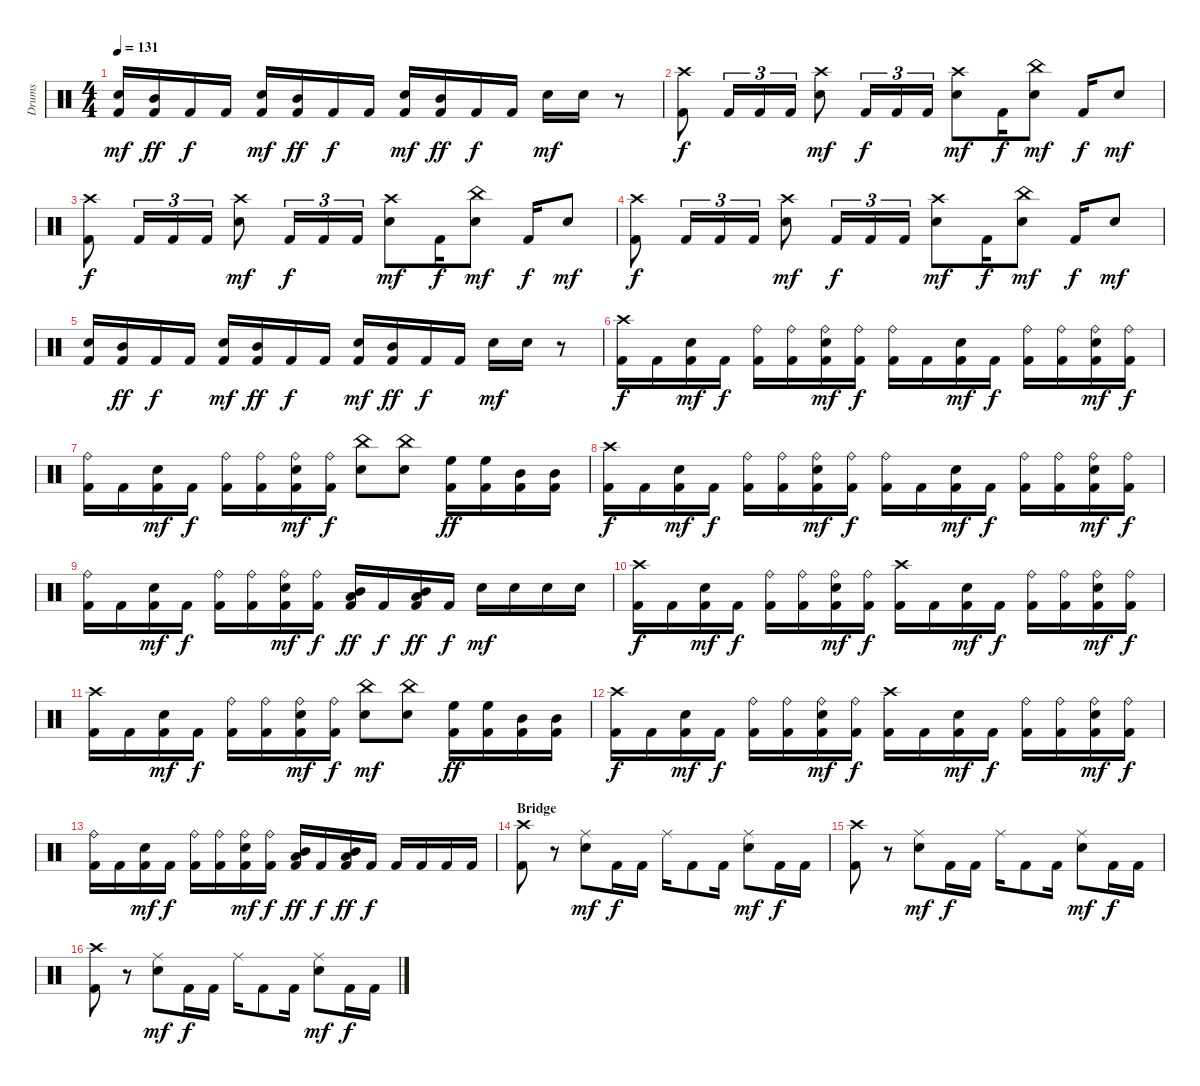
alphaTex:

\track ("Drums" "Drums") {instrument percussion}
\staff {score}
\articulation defaults
\ts (4 4)
\tempo 131
\clef neutral
\ks c
("Snare (hit) 2" "Kick (hit) 2").16{dy mf} ("Mid Tom (hit)" "Kick (hit) 2").16{dy ff} "Kick (hit) 2".16{dy f} "Kick (hit) 2".16 ("Snare (hit) 2" "Kick (hit) 2").16{dy mf} ("Mid Tom (hit)" "Kick (hit) 2").16{dy ff} "Kick (hit) 2".16{dy f} "Kick (hit) 2".16 ("Snare (hit) 2" "Kick (hit) 2").16{dy mf} ("Mid Tom (hit)" "Kick (hit) 2").16{dy ff} "Kick (hit) 2".16{dy f} "Kick (hit) 2".16 "Snare (hit) 2".16{dy mf} "Snare (hit) 2".16 r.8 |
("Crash high (hit)" "Kick (hit) 2").8{dy f} "Kick (hit) 2".16{tu (3 2)} "Kick (hit) 2".16{tu (3 2)} "Kick (hit) 2".16{tu (3 2)} ("Crash high (hit)" "Snare (hit) 2").8{dy mf} "Kick (hit) 2".16{tu (3 2) dy f} "Kick (hit) 2".16{tu (3 2)} "Kick (hit) 2".16{tu (3 2)} ("Crash high (hit)" "Snare (hit) 2").8{dy mf} "Kick (hit) 2".16{dy f} ("China (hit)" "Snare (hit) 2").8{dy mf} "Kick (hit) 2".16{dy f} "Snare (hit) 2".8{dy mf} |
("Crash high (hit)" "Kick (hit) 2").8{dy f} "Kick (hit) 2".16{tu (3 2)} "Kick (hit) 2".16{tu (3 2)} "Kick (hit) 2".16{tu (3 2)} ("Crash high (hit)" "Snare (hit) 2").8{dy mf} "Kick (hit) 2".16{tu (3 2) dy f} "Kick (hit) 2".16{tu (3 2)} "Kick (hit) 2".16{tu (3 2)} ("Crash high (hit)" "Snare (hit) 2").8{dy mf} "Kick (hit) 2".16{dy f} ("China (hit)" "Snare (hit) 2").8{dy mf} "Kick (hit) 2".16{dy f} "Snare (hit) 2".8{dy mf} |
("Crash high (hit)" "Kick (hit) 2").8{dy f} "Kick (hit) 2".16{tu (3 2)} "Kick (hit) 2".16{tu (3 2)} "Kick (hit) 2".16{tu (3 2)} ("Crash high (hit)" "Snare (hit) 2").8{dy mf} "Kick (hit) 2".16{tu (3 2) dy f} "Kick (hit) 2".16{tu (3 2)} "Kick (hit) 2".16{tu (3 2)} ("Crash high (hit)" "Snare (hit) 2").8{dy mf} "Kick (hit) 2".16{dy f} ("China (hit)" "Snare (hit) 2").8{dy mf} "Kick (hit) 2".16{dy f} "Snare (hit) 2".8{dy mf} |
("Snare (hit) 2" "Kick (hit) 2").16 ("Mid Tom (hit)" "Kick (hit) 2").16{dy ff} "Kick (hit) 2".16{dy f} "Kick (hit) 2".16 ("Snare (hit) 2" "Kick (hit) 2").16{dy mf} ("Mid Tom (hit)" "Kick (hit) 2").16{dy ff} "Kick (hit) 2".16{dy f} "Kick (hit) 2".16 ("Snare (hit) 2" "Kick (hit) 2").16{dy mf} ("Mid Tom (hit)" "Kick (hit) 2").16{dy ff} "Kick (hit) 2".16{dy f} "Kick (hit) 2".16 "Snare (hit) 2".16{dy mf} "Snare (hit) 2".16 r.8 |
\section ("" "")
("Crash high (hit)" "Kick (hit) 2").16{dy f} "Kick (hit) 2".16 ("Snare (hit) 2" "Kick (hit) 2").16{dy mf} "Kick (hit) 2".16{dy f} ("Ride (bell)" "Kick (hit) 2").16 ("Ride (bell)" "Kick (hit) 2").16 ("Ride (bell)" "Snare (hit) 2" "Kick (hit) 2").16{dy mf} ("Ride (bell)" "Kick (hit) 2").16{dy f} ("Ride (bell)" "Kick (hit) 2").16 "Kick (hit) 2".16 ("Snare (hit) 2" "Kick (hit) 2").16{dy mf} "Kick (hit) 2".16{dy f} ("Ride (bell)" "Kick (hit) 2").16 ("Ride (bell)" "Kick (hit) 2").16 ("Ride (bell)" "Snare (hit) 2" "Kick (hit) 2").16{dy mf} ("Ride (bell)" "Kick (hit) 2").16{dy f} |
("Ride (bell)" "Kick (hit) 2").16 "Kick (hit) 2".16 ("Snare (hit) 2" "Kick (hit) 2").16{dy mf} "Kick (hit) 2".16{dy f} ("Ride (bell)" "Kick (hit) 2").16 ("Ride (bell)" "Kick (hit) 2").16 ("Ride (bell)" "Snare (hit) 2" "Kick (hit) 2").16{dy mf} ("Ride (bell)" "Kick (hit) 2").16{dy f} ("China (hit)" "Snare (hit) 2").8 ("China (hit)" "Snare (hit) 2").8 ("High Floor Tom (hit)" "Kick (hit) 2").16{dy ff} ("High Floor Tom (hit)" "Kick (hit) 2").16 ("Mid Tom (hit)" "Kick (hit) 2").16 ("Mid Tom (hit)" "Kick (hit) 2").16 |
("Crash high (hit)" "Kick (hit) 2").16{dy f} "Kick (hit) 2".16 ("Snare (hit) 2" "Kick (hit) 2").16{dy mf} "Kick (hit) 2".16{dy f} ("Ride (bell)" "Kick (hit) 2").16 ("Ride (bell)" "Kick (hit) 2").16 ("Ride (bell)" "Snare (hit) 2" "Kick (hit) 2").16{dy mf} ("Ride (bell)" "Kick (hit) 2").16{dy f} ("Ride (bell)" "Kick (hit) 2").16 "Kick (hit) 2".16 ("Snare (hit) 2" "Kick (hit) 2").16{dy mf} "Kick (hit) 2".16{dy f} ("Ride (bell)" "Kick (hit) 2").16 ("Ride (bell)" "Kick (hit) 2").16 ("Ride (bell)" "Snare (hit) 2" "Kick (hit) 2").16{dy mf} ("Ride (bell)" "Kick (hit) 2").16{dy f} |
("Ride (bell)" "Kick (hit) 2").16 "Kick (hit) 2".16 ("Snare (hit) 2" "Kick (hit) 2").16{dy mf} "Kick (hit) 2".16{dy f} ("Ride (bell)" "Kick (hit) 2").16 ("Ride (bell)" "Kick (hit) 2").16 ("Ride (bell)" "Snare (hit) 2" "Kick (hit) 2").16{dy mf} ("Ride (bell)" "Kick (hit) 2").16{dy f} ("Mid Tom (hit)" "Low Tom (hit)" "Kick (hit) 2").16{dy ff} "Kick (hit) 2".16{dy f} ("Mid Tom (hit)" "Low Tom (hit)" "Kick (hit) 2").16{dy ff} "Kick (hit) 2".16{dy f} "Snare (hit) 2".16{dy mf} "Snare (hit) 2".16 "Snare (hit) 2".16 "Snare (hit) 2".16 |
("Crash high (hit)" "Kick (hit) 2").16{dy f} "Kick (hit) 2".16 ("Snare (hit) 2" "Kick (hit) 2").16{dy mf} "Kick (hit) 2".16{dy f} ("Ride (bell)" "Kick (hit) 2").16 ("Ride (bell)" "Kick (hit) 2").16 ("Ride (bell)" "Snare (hit) 2" "Kick (hit) 2").16{dy mf} ("Ride (bell)" "Kick (hit) 2").16{dy f} ("Crash high (hit)" "Kick (hit) 2").16 "Kick (hit) 2".16 ("Snare (hit) 2" "Kick (hit) 2").16{dy mf} "Kick (hit) 2".16{dy f} ("Ride (bell)" "Kick (hit) 2").16 ("Ride (bell)" "Kick (hit) 2").16 ("Ride (bell)" "Snare (hit) 2" "Kick (hit) 2").16{dy mf} ("Ride (bell)" "Kick (hit) 2").16{dy f} |
("Crash high (hit)" "Kick (hit) 2").16 "Kick (hit) 2".16 ("Snare (hit) 2" "Kick (hit) 2").16{dy mf} "Kick (hit) 2".16{dy f} ("Ride (bell)" "Kick (hit) 2").16 ("Ride (bell)" "Kick (hit) 2").16 ("Ride (bell)" "Snare (hit) 2" "Kick (hit) 2").16{dy mf} ("Ride (bell)" "Kick (hit) 2").16{dy f} ("China (hit)" "Snare (hit) 2").8{dy mf} ("China (hit)" "Snare (hit) 2").8 ("High Floor Tom (hit)" "Kick (hit) 2").16{dy ff} ("High Floor Tom (hit)" "Kick (hit) 2").16 ("Mid Tom (hit)" "Kick (hit) 2").16 ("Mid Tom (hit)" "Kick (hit) 2").16 |
("Crash high (hit)" "Kick (hit) 2").16{dy f} "Kick (hit) 2".16 ("Snare (hit) 2" "Kick (hit) 2").16{dy mf} "Kick (hit) 2".16{dy f} ("Ride (bell)" "Kick (hit) 2").16 ("Ride (bell)" "Kick (hit) 2").16 ("Ride (bell)" "Snare (hit) 2" "Kick (hit) 2").16{dy mf} ("Ride (bell)" "Kick (hit) 2").16{dy f} ("Crash high (hit)" "Kick (hit) 2").16 "Kick (hit) 2".16 ("Snare (hit) 2" "Kick (hit) 2").16{dy mf} "Kick (hit) 2".16{dy f} ("Ride (bell)" "Kick (hit) 2").16 ("Ride (bell)" "Kick (hit) 2").16 ("Ride (bell)" "Snare (hit) 2" "Kick (hit) 2").16{dy mf} ("Ride (bell)" "Kick (hit) 2").16{dy f} |
("Ride (bell)" "Kick (hit) 2").16 "Kick (hit) 2".16 ("Snare (hit) 2" "Kick (hit) 2").16{dy mf} "Kick (hit) 2".16{dy f} ("Ride (bell)" "Kick (hit) 2").16 ("Ride (bell)" "Kick (hit) 2").16 ("Ride (bell)" "Snare (hit) 2" "Kick (hit) 2").16{dy mf} ("Ride (bell)" "Kick (hit) 2").16{dy f} ("Mid Tom (hit)" "Low Tom (hit)" "Kick (hit) 2").16{dy ff} "Kick (hit) 2".16{dy f} ("Mid Tom (hit)" "Low Tom (hit)" "Kick (hit) 2").16{dy ff} "Kick (hit) 2".16{dy f} "Kick (hit) 2".16 "Kick (hit) 2".16 "Kick (hit) 2".16 "Kick (hit) 2".16 |
\section ("" "Bridge")
("Crash high (hit)" "Kick (hit) 2").8 r.8 ("Ride (middle)" "Snare (hit) 2").8{dy mf} "Kick (hit) 2".16{dy f} "Kick (hit) 2".16 "Ride (middle)".16 "Kick (hit) 2".8 "Kick (hit) 2".16 ("Ride (middle)" "Snare (hit) 2").8{dy mf} "Kick (hit) 2".16{dy f} "Kick (hit) 2".16 |
("Crash high (hit)" "Kick (hit) 2").8 r.8 ("Ride (middle)" "Snare (hit) 2").8{dy mf} "Kick (hit) 2".16{dy f} "Kick (hit) 2".16 "Ride (middle)".16 "Kick (hit) 2".8 "Kick (hit) 2".16 ("Ride (middle)" "Snare (hit) 2").8{dy mf} "Kick (hit) 2".16{dy f} "Kick (hit) 2".16 |
("Crash high (hit)" "Kick (hit) 2").8 r.8 ("Ride (middle)" "Snare (hit) 2").8{dy mf} "Kick (hit) 2".16{dy f} "Kick (hit) 2".16 "Ride (middle)".16 "Kick (hit) 2".8 "Kick (hit) 2".16 ("Ride (middle)" "Snare (hit) 2").8{dy mf} "Kick (hit) 2".16{dy f} "Kick (hit) 2".16
